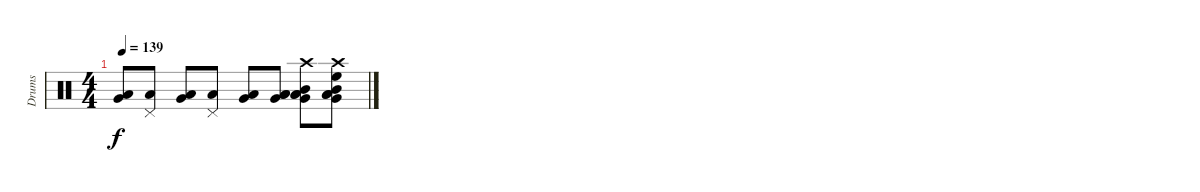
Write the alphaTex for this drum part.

\track ("Drums" "Drums") {instrument percussion}
\staff {score}
\articulation defaults
\ts (4 4)
\tempo 139
\clef neutral
\ks c
("Low Tom (hit)" "Very Low Tom (hit)").8{dy f} ("Low Tom (hit)" "Pedal Hi-Hat (hit)").8 ("Low Tom (hit)" "Very Low Tom (hit)").8 ("Low Tom (hit)" "Pedal Hi-Hat (hit)").8 ("Low Tom (hit)" "Very Low Tom (hit)").8 ("Low Tom (hit)" "Very Low Tom (hit)" "Low Floor Tom (hit)").8 ("Low Tom (hit)" "Very Low Tom (hit)" "Low Floor Tom (hit)" "Mid Tom (hit)" "Crash high (hit)").8 ("Low Tom (hit)" "Very Low Tom (hit)" "Low Floor Tom (hit)" "Mid Tom (hit)" "Crash high (hit)" "High Floor Tom (hit)").8
